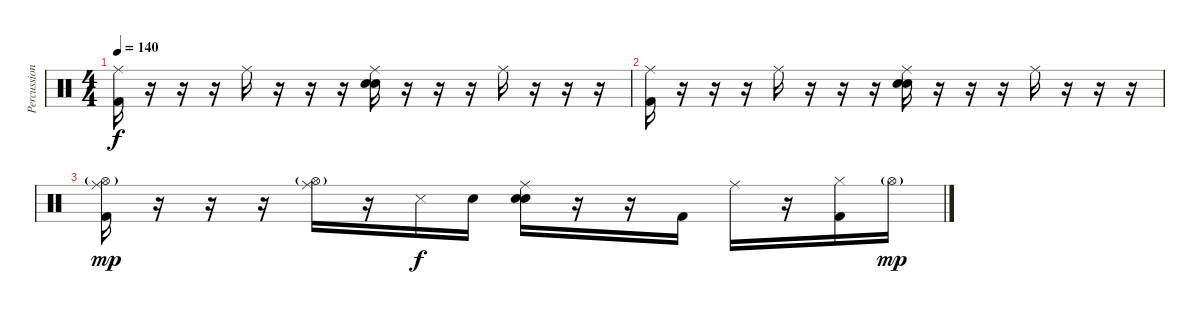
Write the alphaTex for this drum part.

\track ("Percussion" "Percussion") {instrument percussion}
\staff {score}
\articulation defaults
\ts (4 4)
\tempo 140
\clef neutral
\ks c
("Ride (middle)" "Kick (hit) 2").16{dy f} r.16 r.16 r.16 "Ride (middle)".16 r.16 r.16 r.16 ("Ride (middle)" "Hand Clap (hit)" "Snare (hit) 2").16 r.16 r.16 r.16 "Ride (middle)".16 r.16 r.16 r.16 |
("Ride (middle)" "Kick (hit) 2").16 r.16 r.16 r.16 "Ride (middle)".16 r.16 r.16 r.16 ("Ride (middle)" "Hand Clap (hit)" "Snare (hit) 2").16 r.16 r.16 r.16 "Ride (middle)".16 r.16 r.16 r.16 |
("Hi-Hat (open)"{g} "Ride (middle)" "Kick (hit) 2").16{dy mp} r.16 r.16 r.16 ("Hi-Hat (open)"{g} "Ride (middle)").16 r.16 "Snare (side stick) 3".16{dy f} "Hand Clap (hit)".16 ("Ride (middle)" "Snare (hit) 2" "Hand Clap (hit)").16 r.16 r.16 "Kick (hit) 2".16 "Ride (middle)".16 r.16 ("Hi-Hat (closed)" "Kick (hit) 2").16 "Hi-Hat (open)"{g}.16{dy mp}
